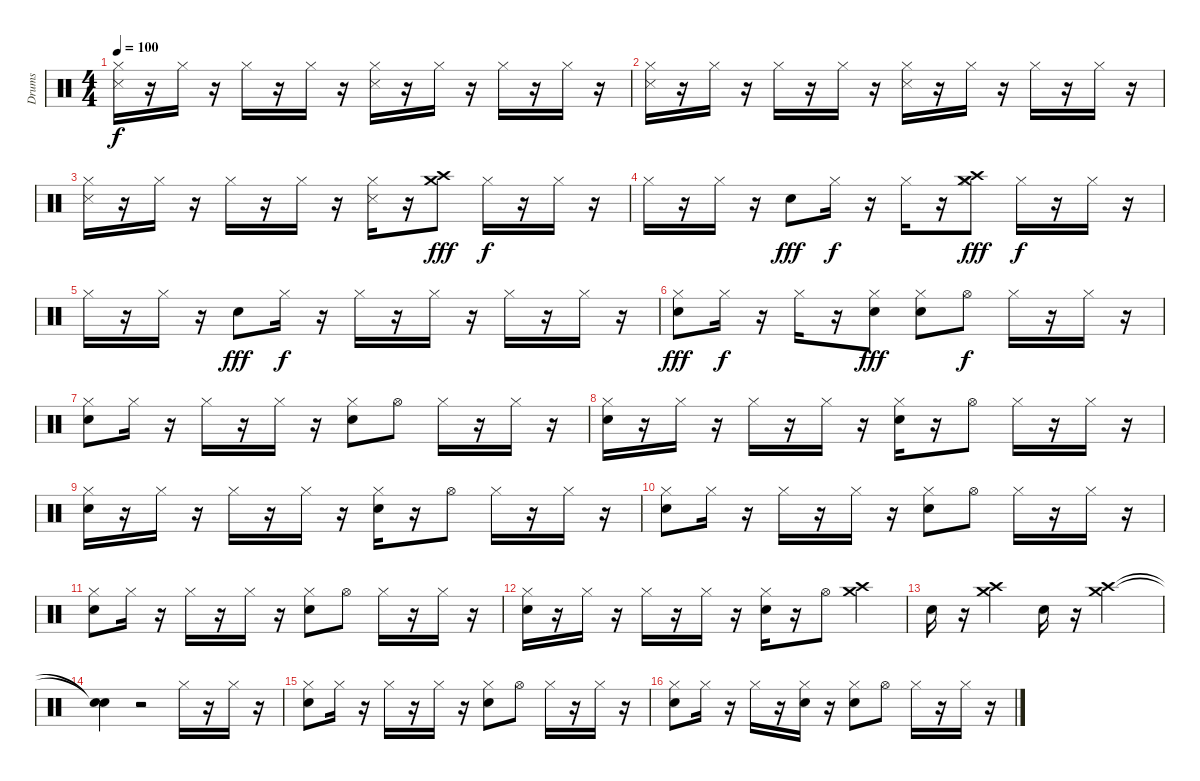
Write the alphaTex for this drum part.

\track ("Drums" "Drums") {instrument percussion}
\staff {score}
\articulation defaults
\ts (4 4)
\tempo 100
\clef neutral
\ks c
("Snare (side stick) 3" "Hi-Hat (closed)").16{dy f} r.16 "Hi-Hat (closed)".16 r.16 "Hi-Hat (closed)".16 r.16 "Hi-Hat (closed)".16 r.16 ("Snare (side stick) 3" "Hi-Hat (closed)").16 r.16 "Hi-Hat (closed)".16 r.16 "Hi-Hat (closed)".16 r.16 "Hi-Hat (closed)".16 r.16 |
("Snare (side stick) 3" "Hi-Hat (closed)").16 r.16 "Hi-Hat (closed)".16 r.16 "Hi-Hat (closed)".16 r.16 "Hi-Hat (closed)".16 r.16 ("Snare (side stick) 3" "Hi-Hat (closed)").16 r.16 "Hi-Hat (closed)".16 r.16 "Hi-Hat (closed)".16 r.16 "Hi-Hat (closed)".16 r.16 |
("Snare (side stick) 3" "Hi-Hat (closed)").16 r.16 "Hi-Hat (closed)".16 r.16 "Hi-Hat (closed)".16 r.16 "Hi-Hat (closed)".16 r.16 ("Snare (side stick) 3" "Hi-Hat (closed)").16 r.16 ("Crash high (hit)" "Crash medium (hit)").8{dy fff} "Hi-Hat (closed)".16{dy f} r.16 "Hi-Hat (closed)".16 r.16 |
"Hi-Hat (closed)".16 r.16 "Hi-Hat (closed)".16 r.16 "Snare (hit) 2".8{dy fff} "Hi-Hat (closed)".16{dy f} r.16 "Hi-Hat (closed)".16 r.16 ("Crash high (hit)" "Crash medium (hit)" "Hi-Hat (closed)").8{dy fff} "Hi-Hat (closed)".16{dy f} r.16 "Hi-Hat (closed)".16 r.16 |
"Hi-Hat (closed)".16 r.16 "Hi-Hat (closed)".16 r.16 "Snare (hit) 2".8{dy fff} "Hi-Hat (closed)".16{dy f} r.16 "Hi-Hat (closed)".16 r.16 "Hi-Hat (closed)".16 r.16 "Hi-Hat (closed)".16 r.16 "Hi-Hat (closed)".16 r.16 |
("Snare (hit) 2" "Hi-Hat (closed)").8{dy fff} "Hi-Hat (closed)".16{dy f} r.16 "Hi-Hat (closed)".16 r.16 ("Snare (hit) 2" "Hi-Hat (closed)").8{dy fff} ("Snare (hit) 2" "Hi-Hat (closed)").8 "Hi-Hat (open)".8{dy f} "Hi-Hat (closed)".16 r.16 "Hi-Hat (closed)".16 r.16 |
("Hi-Hat (closed)" "Snare (hit) 2").8 "Hi-Hat (closed)".16 r.16 "Hi-Hat (closed)".16 r.16 "Hi-Hat (closed)".16 r.16 ("Snare (hit) 2" "Hi-Hat (closed)").8 "Hi-Hat (open)".8 "Hi-Hat (closed)".16 r.16 "Hi-Hat (closed)".16 r.16 |
("Hi-Hat (closed)" "Snare (hit) 2").16 r.16 "Hi-Hat (closed)".16 r.16 "Hi-Hat (closed)".16 r.16 "Hi-Hat (closed)".16 r.16 ("Hi-Hat (closed)" "Snare (hit) 2").16 r.16 "Hi-Hat (open)".8 "Hi-Hat (closed)".16 r.16 "Hi-Hat (closed)".16 r.16 |
("Hi-Hat (closed)" "Snare (hit) 2").16 r.16 "Hi-Hat (closed)".16 r.16 "Hi-Hat (closed)".16 r.16 "Hi-Hat (closed)".16 r.16 ("Hi-Hat (closed)" "Snare (hit) 2").16 r.16 "Hi-Hat (open)".8 "Hi-Hat (closed)".16 r.16 "Hi-Hat (closed)".16 r.16 |
("Snare (hit) 2" "Hi-Hat (closed)").8 "Hi-Hat (closed)".16 r.16 "Hi-Hat (closed)".16 r.16 "Hi-Hat (closed)".16 r.16 ("Snare (hit) 2" "Hi-Hat (closed)").8 "Hi-Hat (open)".8 "Hi-Hat (closed)".16 r.16 "Hi-Hat (closed)".16 r.16 |
("Hi-Hat (closed)" "Snare (hit) 2").8 "Hi-Hat (closed)".16 r.16 "Hi-Hat (closed)".16 r.16 "Hi-Hat (closed)".16 r.16 ("Snare (hit) 2" "Hi-Hat (closed)").8 "Hi-Hat (open)".8 "Hi-Hat (closed)".16 r.16 "Hi-Hat (closed)".16 r.16 |
("Hi-Hat (closed)" "Snare (hit) 2").16 r.16 "Hi-Hat (closed)".16 r.16 "Hi-Hat (closed)".16 r.16 "Hi-Hat (closed)".16 r.16 ("Hi-Hat (closed)" "Snare (hit) 2").16 r.16 "Hi-Hat (open)".8 ("Crash high (hit)" "Crash medium (hit)").4 |
"Snare (hit) 2".16 r.16 ("Crash high (hit)" "Crash medium (hit)").4 "Snare (hit) 2".16 r.16 ("Crash high (hit)" "Crash medium (hit)").2 |
("Snare (hit)"{t} "Snare (hit)"{t}).4 r.2 "Hi-Hat (closed)".16 r.16 "Hi-Hat (closed)".16 r.16 |
("Snare (hit) 2" "Hi-Hat (closed)").8 "Hi-Hat (closed)".16 r.16 "Hi-Hat (closed)".16 r.16 "Hi-Hat (closed)".16 r.16 ("Snare (hit) 2" "Hi-Hat (closed)").8 "Hi-Hat (open)".8 "Hi-Hat (closed)".16 r.16 "Hi-Hat (closed)".16 r.16 |
("Hi-Hat (closed)" "Snare (hit) 2").8 "Hi-Hat (closed)".16 r.16 "Hi-Hat (closed)".16 r.16 ("Hi-Hat (closed)" "Snare (hit) 2").16 r.16 ("Snare (hit) 2" "Hi-Hat (closed)").8 "Hi-Hat (open)".8 "Hi-Hat (closed)".16 r.16 "Hi-Hat (closed)".16 r.16
